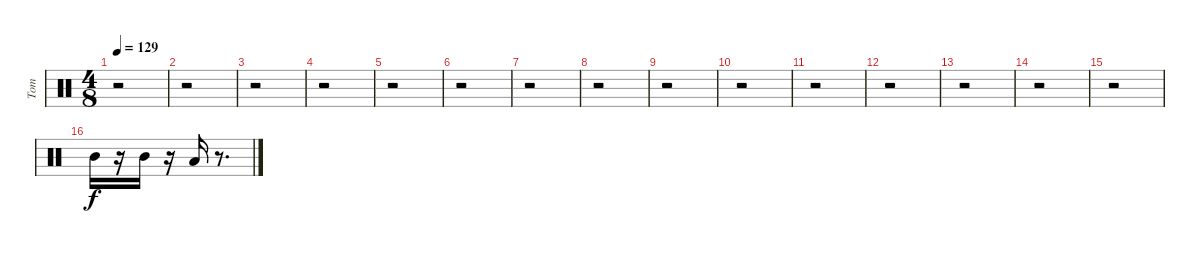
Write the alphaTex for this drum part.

\track ("Tom" "Tom") {instrument percussion}
\staff {score}
\articulation defaults
\ts (4 8)
\tempo 129
\clef neutral
\ks c
r.2{dy mp} |
r.2 |
r.2 |
r.2 |
r.2 |
r.2 |
r.2 |
r.2 |
r.2 |
r.2 |
r.2 |
r.2 |
r.2 |
r.2 |
r.2 |
"Mid Tom (hit)".16{dy f} r.16 "Mid Tom (hit)".16 r.16 "Low Tom (hit)".16 r.8{d}
